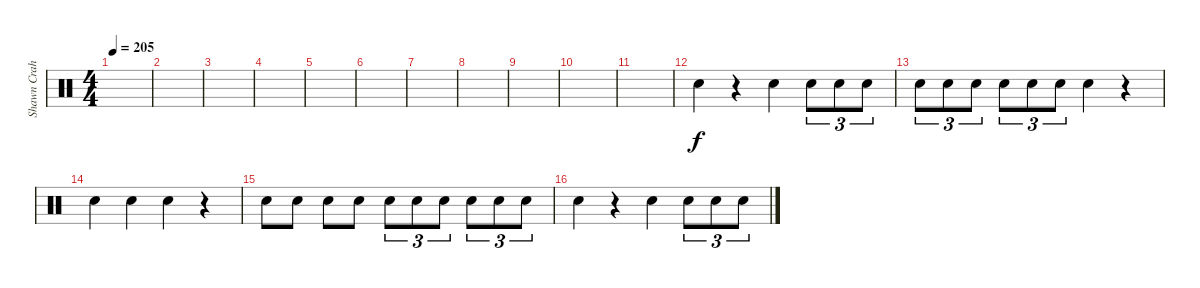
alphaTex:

\track ("Shawn Crahan" "Shawn Crah") {instrument percussion}
\staff {score}
\articulation defaults
\ts (4 4)
\tempo 205
\clef neutral
\ks c
|
|
|
|
|
|
|
|
|
|
|
"Electric Snare (hit)".4 r.4 "Electric Snare (hit)".4 "Electric Snare (hit)".8{tu (3 2)} "Electric Snare (hit)".8{tu (3 2)} "Electric Snare (hit)".8{tu (3 2)} |
"Electric Snare (hit)".8{tu (3 2)} "Electric Snare (hit)".8{tu (3 2)} "Electric Snare (hit)".8{tu (3 2)} "Electric Snare (hit)".8{tu (3 2)} "Electric Snare (hit)".8{tu (3 2)} "Electric Snare (hit)".8{tu (3 2)} "Electric Snare (hit)".4 r.4 |
"Electric Snare (hit)".4 "Electric Snare (hit)".4 "Electric Snare (hit)".4 r.4 |
"Electric Snare (hit)".8 "Electric Snare (hit)".8 "Electric Snare (hit)".8 "Electric Snare (hit)".8 "Electric Snare (hit)".8{tu (3 2)} "Electric Snare (hit)".8{tu (3 2)} "Electric Snare (hit)".8{tu (3 2)} "Electric Snare (hit)".8{tu (3 2)} "Electric Snare (hit)".8{tu (3 2)} "Electric Snare (hit)".8{tu (3 2)} |
"Electric Snare (hit)".4 r.4 "Electric Snare (hit)".4 "Electric Snare (hit)".8{tu (3 2)} "Electric Snare (hit)".8{tu (3 2)} "Electric Snare (hit)".8{tu (3 2)}
